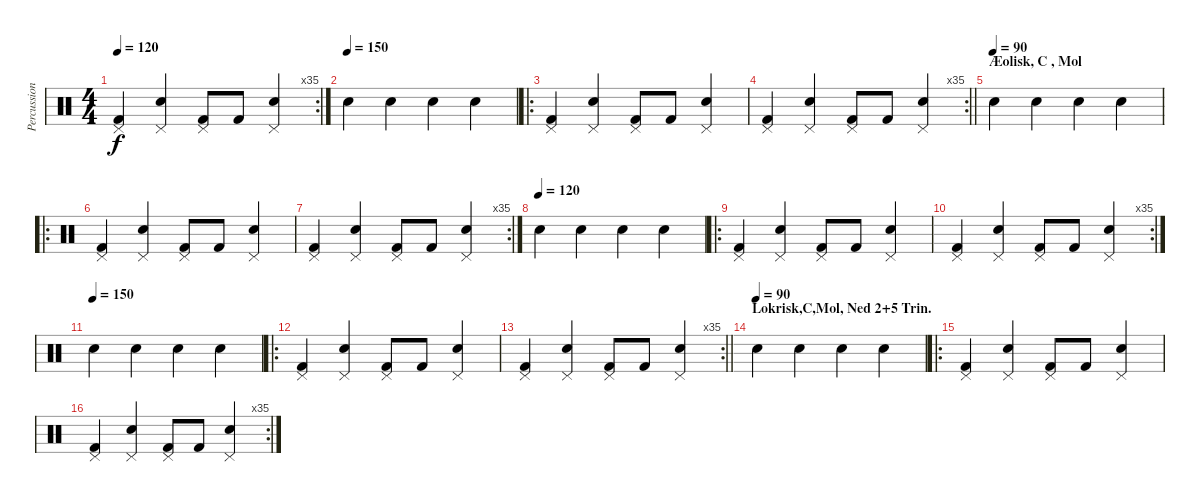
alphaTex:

\track ("Percussion" "Percussion") {instrument percussion}
\staff {score}
\articulation defaults
\rc 35
\ts (4 4)
\tempo 120
\clef neutral
\ks c
("Pedal Hi-Hat (hit)" "Kick (hit) 2").4{dy f} ("Pedal Hi-Hat (hit)" "Electric Snare (hit)").4 ("Pedal Hi-Hat (hit)" "Kick (hit) 2").8 "Kick (hit) 2".8 ("Pedal Hi-Hat (hit)" "Electric Snare (hit)").4 |
\tempo (150)
"Electric Snare (hit)".4 "Electric Snare (hit)".4 "Electric Snare (hit)".4 "Electric Snare (hit)".4 |
\ro
("Pedal Hi-Hat (hit)" "Kick (hit) 2").4 ("Pedal Hi-Hat (hit)" "Electric Snare (hit)").4 ("Pedal Hi-Hat (hit)" "Kick (hit) 2").8 "Kick (hit) 2".8 ("Pedal Hi-Hat (hit)" "Electric Snare (hit)").4 |
\rc 35
\barLineRight lightlight
("Pedal Hi-Hat (hit)" "Kick (hit) 2").4 ("Pedal Hi-Hat (hit)" "Electric Snare (hit)").4 ("Pedal Hi-Hat (hit)" "Kick (hit) 2").8 "Kick (hit) 2".8 ("Pedal Hi-Hat (hit)" "Electric Snare (hit)").4 |
\section ("" "Æolisk, C , Mol ")
\tempo (90)
"Electric Snare (hit)".4 "Electric Snare (hit)".4 "Electric Snare (hit)".4 "Electric Snare (hit)".4 |
\ro
("Pedal Hi-Hat (hit)" "Kick (hit) 2").4 ("Pedal Hi-Hat (hit)" "Electric Snare (hit)").4 ("Pedal Hi-Hat (hit)" "Kick (hit) 2").8 "Kick (hit) 2".8 ("Pedal Hi-Hat (hit)" "Electric Snare (hit)").4 |
\rc 35
("Pedal Hi-Hat (hit)" "Kick (hit) 2").4 ("Pedal Hi-Hat (hit)" "Electric Snare (hit)").4 ("Pedal Hi-Hat (hit)" "Kick (hit) 2").8 "Kick (hit) 2".8 ("Pedal Hi-Hat (hit)" "Electric Snare (hit)").4 |
\tempo (120)
"Electric Snare (hit)".4 "Electric Snare (hit)".4 "Electric Snare (hit)".4 "Electric Snare (hit)".4 |
\ro
("Pedal Hi-Hat (hit)" "Kick (hit) 2").4 ("Pedal Hi-Hat (hit)" "Electric Snare (hit)").4 ("Pedal Hi-Hat (hit)" "Kick (hit) 2").8 "Kick (hit) 2".8 ("Pedal Hi-Hat (hit)" "Electric Snare (hit)").4 |
\rc 35
("Pedal Hi-Hat (hit)" "Kick (hit) 2").4 ("Pedal Hi-Hat (hit)" "Electric Snare (hit)").4 ("Pedal Hi-Hat (hit)" "Kick (hit) 2").8 "Kick (hit) 2".8 ("Pedal Hi-Hat (hit)" "Electric Snare (hit)").4 |
\tempo (150)
"Electric Snare (hit)".4 "Electric Snare (hit)".4 "Electric Snare (hit)".4 "Electric Snare (hit)".4 |
\ro
("Pedal Hi-Hat (hit)" "Kick (hit) 2").4 ("Pedal Hi-Hat (hit)" "Electric Snare (hit)").4 ("Pedal Hi-Hat (hit)" "Kick (hit) 2").8 "Kick (hit) 2".8 ("Pedal Hi-Hat (hit)" "Electric Snare (hit)").4 |
\rc 35
\barLineRight lightlight
("Pedal Hi-Hat (hit)" "Kick (hit) 2").4 ("Pedal Hi-Hat (hit)" "Electric Snare (hit)").4 ("Pedal Hi-Hat (hit)" "Kick (hit) 2").8 "Kick (hit) 2".8 ("Pedal Hi-Hat (hit)" "Electric Snare (hit)").4 |
\section ("" "Lokrisk,C,Mol, Ned 2+5 Trin. ")
\tempo (90)
"Electric Snare (hit)".4 "Electric Snare (hit)".4 "Electric Snare (hit)".4 "Electric Snare (hit)".4 |
\ro
("Pedal Hi-Hat (hit)" "Kick (hit) 2").4 ("Pedal Hi-Hat (hit)" "Electric Snare (hit)").4 ("Pedal Hi-Hat (hit)" "Kick (hit) 2").8 "Kick (hit) 2".8 ("Pedal Hi-Hat (hit)" "Electric Snare (hit)").4 |
\rc 35
("Pedal Hi-Hat (hit)" "Kick (hit) 2").4 ("Pedal Hi-Hat (hit)" "Electric Snare (hit)").4 ("Pedal Hi-Hat (hit)" "Kick (hit) 2").8 "Kick (hit) 2".8 ("Pedal Hi-Hat (hit)" "Electric Snare (hit)").4
